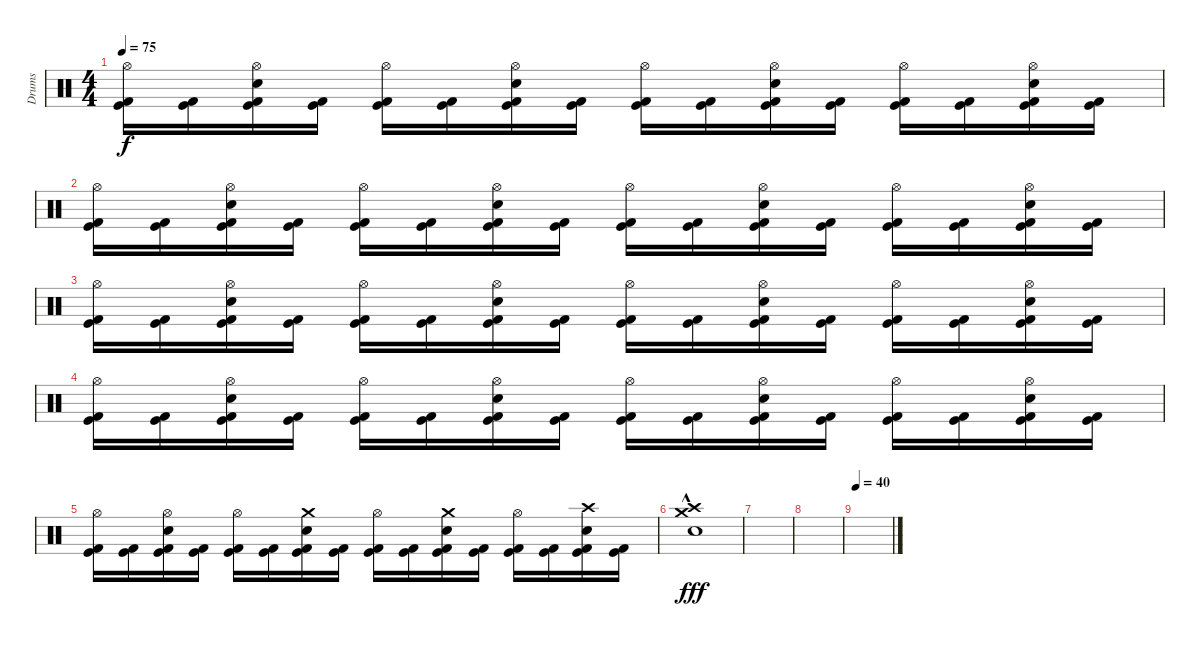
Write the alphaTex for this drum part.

\track ("Drums" "Drums") {instrument percussion}
\staff {score}
\articulation defaults
\ts (4 4)
\tempo 75
\clef neutral
\ks c
("Kick (hit) 2" "Kick (hit)" "Hi-Hat (open)").16{dy f} ("Kick (hit) 2" "Kick (hit)").16 ("Kick (hit) 2" "Kick (hit)" "Electric Snare (hit)" "Hi-Hat (open)").16 ("Kick (hit) 2" "Kick (hit)").16 ("Kick (hit) 2" "Kick (hit)" "Hi-Hat (open)").16 ("Kick (hit) 2" "Kick (hit)").16 ("Kick (hit) 2" "Kick (hit)" "Electric Snare (hit)" "Hi-Hat (open)").16 ("Kick (hit) 2" "Kick (hit)").16 ("Kick (hit) 2" "Kick (hit)" "Hi-Hat (open)").16 ("Kick (hit) 2" "Kick (hit)").16 ("Kick (hit) 2" "Kick (hit)" "Electric Snare (hit)" "Hi-Hat (open)").16 ("Kick (hit) 2" "Kick (hit)").16 ("Kick (hit) 2" "Kick (hit)" "Hi-Hat (open)").16 ("Kick (hit) 2" "Kick (hit)").16 ("Kick (hit) 2" "Kick (hit)" "Electric Snare (hit)" "Hi-Hat (open)").16 ("Kick (hit) 2" "Kick (hit)").16 |
("Kick (hit) 2" "Kick (hit)" "Hi-Hat (open)").16 ("Kick (hit) 2" "Kick (hit)").16 ("Kick (hit) 2" "Kick (hit)" "Electric Snare (hit)" "Hi-Hat (open)").16 ("Kick (hit) 2" "Kick (hit)").16 ("Kick (hit) 2" "Kick (hit)" "Hi-Hat (open)").16 ("Kick (hit) 2" "Kick (hit)").16 ("Kick (hit) 2" "Kick (hit)" "Electric Snare (hit)" "Hi-Hat (open)").16 ("Kick (hit) 2" "Kick (hit)").16 ("Kick (hit) 2" "Kick (hit)" "Hi-Hat (open)").16 ("Kick (hit) 2" "Kick (hit)").16 ("Kick (hit) 2" "Kick (hit)" "Electric Snare (hit)" "Hi-Hat (open)").16 ("Kick (hit) 2" "Kick (hit)").16 ("Kick (hit) 2" "Kick (hit)" "Hi-Hat (open)").16 ("Kick (hit) 2" "Kick (hit)").16 ("Kick (hit) 2" "Kick (hit)" "Electric Snare (hit)" "Hi-Hat (open)").16 ("Kick (hit) 2" "Kick (hit)").16 |
("Kick (hit) 2" "Kick (hit)" "Hi-Hat (open)").16 ("Kick (hit) 2" "Kick (hit)").16 ("Kick (hit) 2" "Kick (hit)" "Electric Snare (hit)" "Hi-Hat (open)").16 ("Kick (hit) 2" "Kick (hit)").16 ("Kick (hit) 2" "Kick (hit)" "Hi-Hat (open)").16 ("Kick (hit) 2" "Kick (hit)").16 ("Kick (hit) 2" "Kick (hit)" "Electric Snare (hit)" "Hi-Hat (open)").16 ("Kick (hit) 2" "Kick (hit)").16 ("Kick (hit) 2" "Kick (hit)" "Hi-Hat (open)").16 ("Kick (hit) 2" "Kick (hit)").16 ("Kick (hit) 2" "Kick (hit)" "Electric Snare (hit)" "Hi-Hat (open)").16 ("Kick (hit) 2" "Kick (hit)").16 ("Kick (hit) 2" "Kick (hit)" "Hi-Hat (open)").16 ("Kick (hit) 2" "Kick (hit)").16 ("Kick (hit) 2" "Kick (hit)" "Electric Snare (hit)" "Hi-Hat (open)").16 ("Kick (hit) 2" "Kick (hit)").16 |
("Kick (hit) 2" "Kick (hit)" "Hi-Hat (open)").16 ("Kick (hit) 2" "Kick (hit)").16 ("Kick (hit) 2" "Kick (hit)" "Electric Snare (hit)" "Hi-Hat (open)").16 ("Kick (hit) 2" "Kick (hit)").16 ("Kick (hit) 2" "Kick (hit)" "Hi-Hat (open)").16 ("Kick (hit) 2" "Kick (hit)").16 ("Kick (hit) 2" "Kick (hit)" "Electric Snare (hit)" "Hi-Hat (open)").16 ("Kick (hit) 2" "Kick (hit)").16 ("Kick (hit) 2" "Kick (hit)" "Hi-Hat (open)").16 ("Kick (hit) 2" "Kick (hit)").16 ("Kick (hit) 2" "Kick (hit)" "Electric Snare (hit)" "Hi-Hat (open)").16 ("Kick (hit) 2" "Kick (hit)").16 ("Kick (hit) 2" "Kick (hit)" "Hi-Hat (open)").16 ("Kick (hit) 2" "Kick (hit)").16 ("Kick (hit) 2" "Kick (hit)" "Electric Snare (hit)" "Hi-Hat (open)").16 ("Kick (hit) 2" "Kick (hit)").16 |
("Kick (hit) 2" "Kick (hit)" "Hi-Hat (open)").16 ("Kick (hit) 2" "Kick (hit)").16 ("Kick (hit) 2" "Kick (hit)" "Electric Snare (hit)" "Hi-Hat (open)").16 ("Kick (hit) 2" "Kick (hit)").16 ("Kick (hit) 2" "Kick (hit)" "Hi-Hat (open)").16 ("Kick (hit) 2" "Kick (hit)").16 ("Kick (hit) 2" "Kick (hit)" "Electric Snare (hit)" "Crash medium (hit)").16 ("Kick (hit) 2" "Kick (hit)").16 ("Kick (hit) 2" "Kick (hit)" "Hi-Hat (open)").16 ("Kick (hit) 2" "Kick (hit)").16 ("Kick (hit) 2" "Kick (hit)" "Electric Snare (hit)" "Crash medium (hit)").16 ("Kick (hit) 2" "Kick (hit)").16 ("Kick (hit) 2" "Kick (hit)" "Hi-Hat (open)").16 ("Kick (hit) 2" "Kick (hit)").16 ("Kick (hit) 2" "Kick (hit)" "Electric Snare (hit)" "Crash high (hit)").16 ("Kick (hit) 2" "Kick (hit)").16 |
("Snare (hit) 2" "Crash medium (hit)"{hac} "Crash high (hit)"{hac}).1{dy fff} |
|
|
\tempo 40
